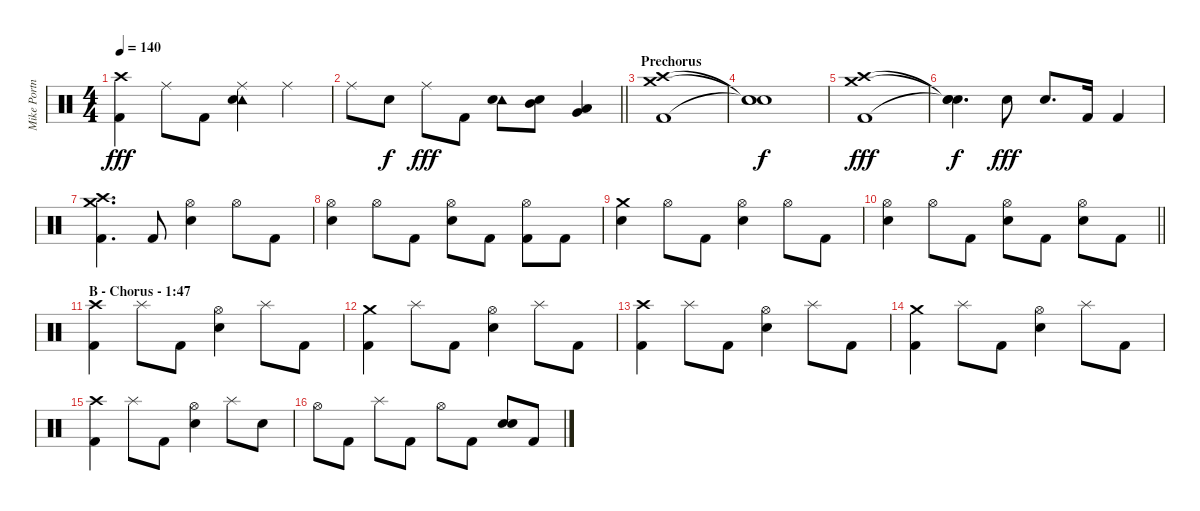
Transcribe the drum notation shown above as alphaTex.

\track ("Mike Portnoy" "Mike Portn") {instrument percussion}
\staff {score}
\articulation defaults
\ts (4 4)
\tempo 140
\clef neutral
\ks c
("Crash high (hit)" "Kick (hit) 2").4{dy fff} "Ride (middle)".8 "Kick (hit) 2".8 ("Tambourine (hit)" "Ride (middle)" "Snare (hit) 2").4 "Ride (middle)".4 |
\barLineRight lightlight "Ride (middle)".8 "Snare (hit) 2".8{dy f} "Ride (middle)".8{dy fff} "Kick (hit) 2".8
("Tambourine (hit)" "Snare (hit) 2").8 ("Mid Tom (hit)" "Snare (hit) 2").8 ("Very Low Tom (hit)" "Low Floor Tom (hit)").4 |
\section ("" "Prechorus")
("Crash high (hit)" "Crash medium (hit)" "Kick (hit) 2").1 |
("Snare (hit)"{t} "Snare (hit)"{t} "Snare (hit)"{t}).1{dy f} |
("Crash high (hit)" "Crash medium (hit)" "Kick (hit) 2").1{dy fff} |
("Snare (hit)"{t} "Snare (hit)"{t} "Snare (hit)"{t}).4{d dy f} "Snare (hit) 2".8{dy fff} "Snare (hit) 2".8{d} "Kick (hit) 2".16 "Kick (hit) 2".4 |
("Crash high (hit)" "Crash medium (hit)" "Kick (hit) 2").4{d} "Kick (hit) 2".8 ("Hi-Hat (open)" "Snare (hit) 2").4 "Hi-Hat (open)".8 "Kick (hit) 2".8 |
("Hi-Hat (open)" "Snare (hit) 2").4 "Hi-Hat (open)".8 "Kick (hit) 2".8 ("Hi-Hat (open)" "Snare (hit) 2").8 "Kick (hit) 2".8 ("Hi-Hat (open)" "Kick (hit) 2").8 "Kick (hit) 2".8 |
("Crash medium (hit)" "Snare (hit) 2").4 "Hi-Hat (open)".8 "Kick (hit) 2".8 ("Hi-Hat (open)" "Snare (hit) 2").4 "Hi-Hat (open)".8 "Kick (hit) 2".8 |
\barLineRight lightlight
("Hi-Hat (open)" "Snare (hit) 2").4 "Hi-Hat (open)".8 "Kick (hit) 2".8 ("Hi-Hat (open)" "Snare (hit) 2").8 "Kick (hit) 2".8 ("Hi-Hat (open)" "Snare (hit) 2").8 "Kick (hit) 2".8 |
\section ("" "B - Chorus - 1:47")
("Crash high (hit)" "Kick (hit) 2").4 "Splash (hit)".8 "Kick (hit) 2".8 ("Hi-Hat (open)" "Snare (hit) 2").4 "Splash (hit)".8 "Kick (hit) 2".8 |
("Crash medium (hit)" "Kick (hit) 2").4 "Splash (hit)".8 "Kick (hit) 2".8 ("Hi-Hat (open)" "Snare (hit) 2").4 "Splash (hit)".8 "Kick (hit) 2".8 |
("Crash high (hit)" "Kick (hit) 2").4 "Splash (hit)".8 "Kick (hit) 2".8 ("Hi-Hat (open)" "Snare (hit) 2").4 "Splash (hit)".8 "Kick (hit) 2".8 |
("Crash medium (hit)" "Kick (hit) 2").4 "Splash (hit)".8 "Kick (hit) 2".8 ("Hi-Hat (open)" "Snare (hit) 2").4 "Splash (hit)".8 "Kick (hit) 2".8 |
("Crash high (hit)" "Kick (hit) 2").4 "Splash (hit)".8 "Kick (hit) 2".8 ("Hi-Hat (open)" "Snare (hit) 2").4 "Splash (hit)".8 "Snare (hit) 2".8 |
"Hi-Hat (open)".8 "Kick (hit) 2".8 "Splash (hit)".8 "Kick (hit) 2".8 "Hi-Hat (open)".8 "Kick (hit) 2".8 ("Snare (hit) 2" "Snare (hit) 2").8 "Kick (hit) 2".8
